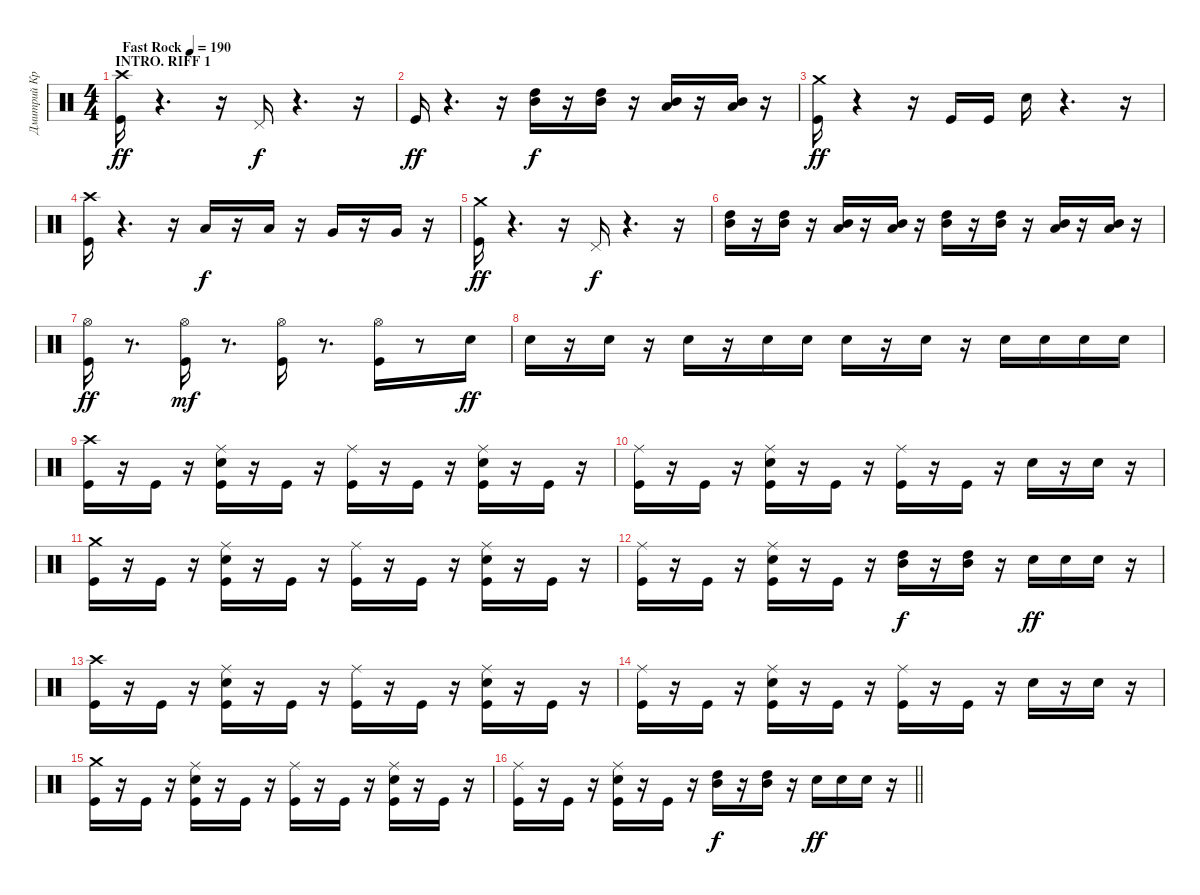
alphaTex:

\track ("Дмитрий Кривенков" "Дмитрий Кр") {instrument percussion}
\staff {score}
\articulation defaults
\ts (4 4)
\section ("" "INTRO. RIFF 1")
\tempo (190 "Fast Rock")
\clef neutral
\ks c
("Crash high (hit)" "Kick (hit)").16{dy ff} r.4{d} r.16 "Pedal Hi-Hat (hit)".16{dy f} r.4{d} r.16 |
"Kick (hit)".16{dy ff} r.4{d} r.16 ("High Tom (hit)" "Mid Tom (hit)").16{dy f} r.16 ("Mid Tom (hit)" "High Tom (hit)").16 r.16 ("Low Tom (hit)" "Mid Tom (hit)").16 r.16 ("Low Tom (hit)" "Mid Tom (hit)").16 r.16 |
("Crash medium (hit)" "Kick (hit)").16{dy ff} r.4 r.16 "Kick (hit)".16 "Kick (hit)".16 "Snare (hit) 2".16 r.4{d} r.16 |
("Crash high (hit)" "Kick (hit)").16 r.4{d} r.16 "Low Tom (hit)".16{dy f} r.16 "Low Tom (hit)".16 r.16 "Very Low Tom (hit)".16 r.16 "Very Low Tom (hit)".16 r.16 |
("Crash medium (hit)" "Kick (hit)").16{dy ff} r.4{d} r.16 "Pedal Hi-Hat (hit)".16{dy f} r.4{d} r.16 |
("Mid Tom (hit)" "High Tom (hit)").16 r.16 ("Mid Tom (hit)" "High Tom (hit)").16 r.16 ("Low Tom (hit)" "Mid Tom (hit)").16 r.16 ("Low Tom (hit)" "Mid Tom (hit)").16 r.16 ("Mid Tom (hit)" "High Tom (hit)").16 r.16 ("Mid Tom (hit)" "High Tom (hit)").16 r.16 ("Low Tom (hit)" "Mid Tom (hit)").16 r.16 ("Low Tom (hit)" "Mid Tom (hit)").16 r.16 |
("Hi-Hat (open)" "Kick (hit)").16{dy ff} r.8{d} ("Kick (hit)" "Hi-Hat (open)").16{dy mf} r.8{d} ("Kick (hit)" "Hi-Hat (open)").16 r.8{d} ("Kick (hit)" "Hi-Hat (open)").16 r.8 "Snare (hit) 2".16{dy ff} |
"Snare (hit) 2".16 r.16 "Snare (hit) 2".16 r.16 "Snare (hit) 2".16 r.16 "Snare (hit) 2".16 "Snare (hit) 2".16 "Snare (hit) 2".16 r.16 "Snare (hit) 2".16 r.16 "Snare (hit) 2".16 "Snare (hit) 2".16 "Snare (hit) 2".16 "Snare (hit) 2".16 |
("Crash high (hit)" "Kick (hit)").16 r.16 "Kick (hit)".16 r.16 ("Ride (middle)" "Kick (hit)" "Snare (hit) 2").16 r.16 "Kick (hit)".16 r.16 ("Ride (middle)" "Kick (hit)").16 r.16 "Kick (hit)".16 r.16 ("Ride (middle)" "Kick (hit)" "Snare (hit) 2").16 r.16 "Kick (hit)".16 r.16 |
("Ride (middle)" "Kick (hit)").16 r.16 "Kick (hit)".16 r.16 ("Ride (middle)" "Kick (hit)" "Snare (hit) 2").16 r.16 "Kick (hit)".16 r.16 ("Ride (middle)" "Kick (hit)").16 r.16 "Kick (hit)".16 r.16 "Snare (hit) 2".16 r.16 "Snare (hit) 2".16 r.16 |
("Crash medium (hit)" "Kick (hit)").16 r.16 "Kick (hit)".16 r.16 ("Kick (hit)" "Snare (hit) 2" "Ride (middle)").16 r.16 "Kick (hit)".16 r.16 ("Kick (hit)" "Ride (middle)").16 r.16 "Kick (hit)".16 r.16 ("Kick (hit)" "Snare (hit) 2" "Ride (middle)").16 r.16 "Kick (hit)".16 r.16 |
("Ride (middle)" "Kick (hit)").16 r.16 "Kick (hit)".16 r.16 ("Ride (middle)" "Kick (hit)" "Snare (hit) 2").16 r.16 "Kick (hit)".16 r.16 ("Mid Tom (hit)" "High Tom (hit)").16{dy f} r.16 ("Mid Tom (hit)" "High Tom (hit)").16 r.16 "Snare (hit) 2".16{dy ff} "Snare (hit) 2".16 "Snare (hit) 2".16 r.16 |
("Crash high (hit)" "Kick (hit)").16 r.16 "Kick (hit)".16 r.16 ("Ride (middle)" "Kick (hit)" "Snare (hit) 2").16 r.16 "Kick (hit)".16 r.16 ("Ride (middle)" "Kick (hit)").16 r.16 "Kick (hit)".16 r.16 ("Ride (middle)" "Kick (hit)" "Snare (hit) 2").16 r.16 "Kick (hit)".16 r.16 |
("Ride (middle)" "Kick (hit)").16 r.16 "Kick (hit)".16 r.16 ("Ride (middle)" "Kick (hit)" "Snare (hit) 2").16 r.16 "Kick (hit)".16 r.16 ("Ride (middle)" "Kick (hit)").16 r.16 "Kick (hit)".16 r.16 "Snare (hit) 2".16 r.16 "Snare (hit) 2".16 r.16 |
("Crash medium (hit)" "Kick (hit)").16 r.16 "Kick (hit)".16 r.16 ("Kick (hit)" "Snare (hit) 2" "Ride (middle)").16 r.16 "Kick (hit)".16 r.16 ("Kick (hit)" "Ride (middle)").16 r.16 "Kick (hit)".16 r.16 ("Kick (hit)" "Snare (hit) 2" "Ride (middle)").16 r.16 "Kick (hit)".16 r.16 |
\barLineRight lightlight
("Ride (middle)" "Kick (hit)").16 r.16 "Kick (hit)".16 r.16 ("Ride (middle)" "Kick (hit)" "Snare (hit) 2").16 r.16 "Kick (hit)".16 r.16 ("Mid Tom (hit)" "High Tom (hit)").16{dy f} r.16 ("Mid Tom (hit)" "High Tom (hit)").16 r.16 "Snare (hit) 2".16{dy ff} "Snare (hit) 2".16 "Snare (hit) 2".16 r.16
